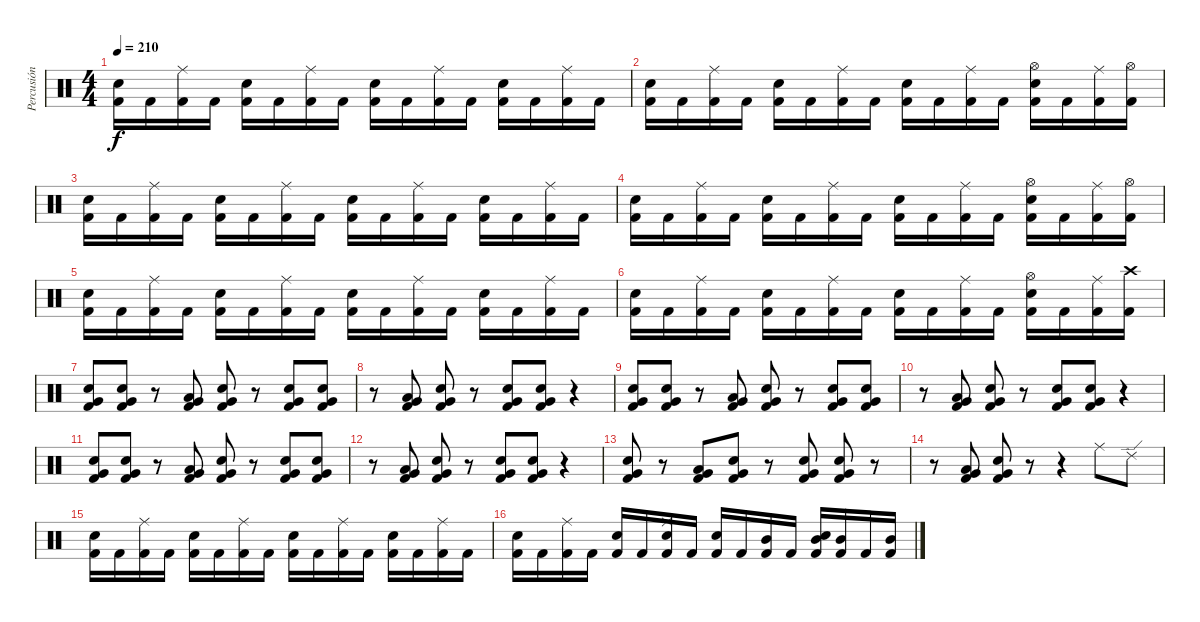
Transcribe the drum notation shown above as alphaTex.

\track ("Percusión" "Percusión") {instrument percussion}
\staff {score}
\articulation defaults
\ts (4 4)
\tempo 210
\clef neutral
\ks c
("Kick (hit) 2" "Snare (hit) 2").16{dy f} "Kick (hit) 2".16 ("Kick (hit) 2" "Ride (middle)").16 "Kick (hit) 2".16 ("Kick (hit) 2" "Snare (hit) 2").16 "Kick (hit) 2".16 ("Kick (hit) 2" "Ride (middle)").16 "Kick (hit) 2".16 ("Kick (hit) 2" "Snare (hit) 2").16 "Kick (hit) 2".16 ("Kick (hit) 2" "Ride (middle)").16 "Kick (hit) 2".16 ("Kick (hit) 2" "Snare (hit) 2").16 "Kick (hit) 2".16 ("Kick (hit) 2" "Ride (middle)").16 "Kick (hit) 2".16 |
("Kick (hit) 2" "Snare (hit) 2").16 "Kick (hit) 2".16 ("Kick (hit) 2" "Ride (middle)").16 "Kick (hit) 2".16 ("Kick (hit) 2" "Snare (hit) 2").16 "Kick (hit) 2".16 ("Kick (hit) 2" "Ride (middle)").16 "Kick (hit) 2".16 ("Kick (hit) 2" "Snare (hit) 2").16 "Kick (hit) 2".16 ("Kick (hit) 2" "Ride (middle)").16 "Kick (hit) 2".16 ("Kick (hit) 2" "Snare (hit) 2" "Hi-Hat (open)").16 "Kick (hit) 2".16 ("Kick (hit) 2" "Ride (middle)").16 ("Kick (hit) 2" "Hi-Hat (open)").16 |
("Kick (hit) 2" "Snare (hit) 2").16 "Kick (hit) 2".16 ("Kick (hit) 2" "Ride (middle)").16 "Kick (hit) 2".16 ("Kick (hit) 2" "Snare (hit) 2").16 "Kick (hit) 2".16 ("Kick (hit) 2" "Ride (middle)").16 "Kick (hit) 2".16 ("Kick (hit) 2" "Snare (hit) 2").16 "Kick (hit) 2".16 ("Kick (hit) 2" "Ride (middle)").16 "Kick (hit) 2".16 ("Kick (hit) 2" "Snare (hit) 2").16 "Kick (hit) 2".16 ("Kick (hit) 2" "Ride (middle)").16 "Kick (hit) 2".16 |
("Kick (hit) 2" "Snare (hit) 2").16 "Kick (hit) 2".16 ("Kick (hit) 2" "Ride (middle)").16 "Kick (hit) 2".16 ("Kick (hit) 2" "Snare (hit) 2").16 "Kick (hit) 2".16 ("Kick (hit) 2" "Ride (middle)").16 "Kick (hit) 2".16 ("Kick (hit) 2" "Snare (hit) 2").16 "Kick (hit) 2".16 ("Kick (hit) 2" "Ride (middle)").16 "Kick (hit) 2".16 ("Kick (hit) 2" "Snare (hit) 2" "Hi-Hat (open)").16 "Kick (hit) 2".16 ("Kick (hit) 2" "Ride (middle)").16 ("Kick (hit) 2" "Hi-Hat (open)").16 |
("Kick (hit) 2" "Snare (hit) 2").16 "Kick (hit) 2".16 ("Kick (hit) 2" "Ride (middle)").16 "Kick (hit) 2".16 ("Kick (hit) 2" "Snare (hit) 2").16 "Kick (hit) 2".16 ("Kick (hit) 2" "Ride (middle)").16 "Kick (hit) 2".16 ("Kick (hit) 2" "Snare (hit) 2").16 "Kick (hit) 2".16 ("Kick (hit) 2" "Ride (middle)").16 "Kick (hit) 2".16 ("Kick (hit) 2" "Snare (hit) 2").16 "Kick (hit) 2".16 ("Kick (hit) 2" "Ride (middle)").16 "Kick (hit) 2".16 |
("Kick (hit) 2" "Snare (hit) 2").16 "Kick (hit) 2".16 ("Kick (hit) 2" "Ride (middle)").16 "Kick (hit) 2".16 ("Kick (hit) 2" "Snare (hit) 2").16 "Kick (hit) 2".16 ("Kick (hit) 2" "Ride (middle)").16 "Kick (hit) 2".16 ("Kick (hit) 2" "Snare (hit) 2").16 "Kick (hit) 2".16 ("Kick (hit) 2" "Ride (middle)").16 "Kick (hit) 2".16 ("Kick (hit) 2" "Snare (hit) 2" "Hi-Hat (open)").16 "Kick (hit) 2".16 ("Kick (hit) 2" "Ride (middle)").16 ("Kick (hit) 2" "Crash high (hit)").16 |
("Kick (hit) 2" "Very Low Tom (hit)" "Electric Snare (hit)").8 ("Kick (hit) 2" "Very Low Tom (hit)" "Electric Snare (hit)").8 r.8 ("Very Low Tom (hit)" "Low Floor Tom (hit)" "Kick (hit) 2").8 ("Kick (hit) 2" "Very Low Tom (hit)" "Electric Snare (hit)").8 r.8 ("Kick (hit) 2" "Very Low Tom (hit)" "Electric Snare (hit)").8 ("Kick (hit) 2" "Very Low Tom (hit)" "Electric Snare (hit)").8 |
r.8 ("Very Low Tom (hit)" "Low Floor Tom (hit)" "Kick (hit) 2").8 ("Kick (hit) 2" "Very Low Tom (hit)" "Electric Snare (hit)").8 r.8 ("Kick (hit) 2" "Very Low Tom (hit)" "Electric Snare (hit)").8 ("Kick (hit) 2" "Very Low Tom (hit)" "Electric Snare (hit)").8 r.4 |
("Kick (hit) 2" "Very Low Tom (hit)" "Electric Snare (hit)").8 ("Kick (hit) 2" "Very Low Tom (hit)" "Electric Snare (hit)").8 r.8 ("Very Low Tom (hit)" "Low Floor Tom (hit)" "Kick (hit) 2").8 ("Kick (hit) 2" "Very Low Tom (hit)" "Electric Snare (hit)").8 r.8 ("Kick (hit) 2" "Very Low Tom (hit)" "Electric Snare (hit)").8 ("Kick (hit) 2" "Very Low Tom (hit)" "Electric Snare (hit)").8 |
r.8 ("Very Low Tom (hit)" "Low Floor Tom (hit)" "Kick (hit) 2").8 ("Kick (hit) 2" "Very Low Tom (hit)" "Electric Snare (hit)").8 r.8 ("Kick (hit) 2" "Very Low Tom (hit)" "Electric Snare (hit)").8 ("Kick (hit) 2" "Very Low Tom (hit)" "Electric Snare (hit)").8 r.4 |
("Kick (hit) 2" "Very Low Tom (hit)" "Electric Snare (hit)").8 ("Kick (hit) 2" "Very Low Tom (hit)" "Electric Snare (hit)").8 r.8 ("Very Low Tom (hit)" "Low Floor Tom (hit)" "Kick (hit) 2").8 ("Kick (hit) 2" "Very Low Tom (hit)" "Electric Snare (hit)").8 r.8 ("Kick (hit) 2" "Very Low Tom (hit)" "Electric Snare (hit)").8 ("Kick (hit) 2" "Very Low Tom (hit)" "Electric Snare (hit)").8 |
r.8 ("Very Low Tom (hit)" "Low Floor Tom (hit)" "Kick (hit) 2").8 ("Kick (hit) 2" "Very Low Tom (hit)" "Electric Snare (hit)").8 r.8 ("Kick (hit) 2" "Very Low Tom (hit)" "Electric Snare (hit)").8 ("Kick (hit) 2" "Very Low Tom (hit)" "Electric Snare (hit)").8 r.4 |
("Kick (hit) 2" "Very Low Tom (hit)" "Electric Snare (hit)").8 r.8 ("Very Low Tom (hit)" "Low Floor Tom (hit)" "Kick (hit) 2").8 ("Kick (hit) 2" "Very Low Tom (hit)" "Electric Snare (hit)").8 r.8 ("Kick (hit) 2" "Very Low Tom (hit)" "Electric Snare (hit)").8 ("Kick (hit) 2" "Very Low Tom (hit)" "Electric Snare (hit)").8 r.8 |
r.8 ("Very Low Tom (hit)" "Low Floor Tom (hit)" "Kick (hit) 2").8 ("Kick (hit) 2" "Very Low Tom (hit)" "Electric Snare (hit)").8 r.8 r.4 "Ride (middle)".8 "Ride (edge) 2".8 |
("Kick (hit) 2" "Snare (hit) 2").16 "Kick (hit) 2".16 ("Kick (hit) 2" "Ride (middle)").16 "Kick (hit) 2".16 ("Kick (hit) 2" "Snare (hit) 2").16 "Kick (hit) 2".16 ("Kick (hit) 2" "Ride (middle)").16 "Kick (hit) 2".16 ("Kick (hit) 2" "Snare (hit) 2").16 "Kick (hit) 2".16 ("Kick (hit) 2" "Ride (middle)").16 "Kick (hit) 2".16 ("Kick (hit) 2" "Snare (hit) 2").16 "Kick (hit) 2".16 ("Kick (hit) 2" "Ride (middle)").16 "Kick (hit) 2".16 |
("Kick (hit) 2" "Snare (hit) 2").16 "Kick (hit) 2".16 ("Kick (hit) 2" "Ride (middle)").16 "Kick (hit) 2".16 ("Kick (hit) 2" "Snare (hit) 2").16 "Kick (hit) 2".16 ("Kick (hit) 2" "Ride (middle)" "Electric Snare (hit)").16 "Kick (hit) 2".16 ("Kick (hit) 2" "Snare (hit) 2").16 "Kick (hit) 2".16 ("Kick (hit) 2" "Mid Tom (hit)").16 "Kick (hit) 2".16 ("Kick (hit) 2" "Mid Tom (hit)" "Snare (hit) 2").16 ("Kick (hit) 2" "Mid Tom (hit)").16 "Kick (hit) 2".16 ("Kick (hit) 2" "Mid Tom (hit)").16
